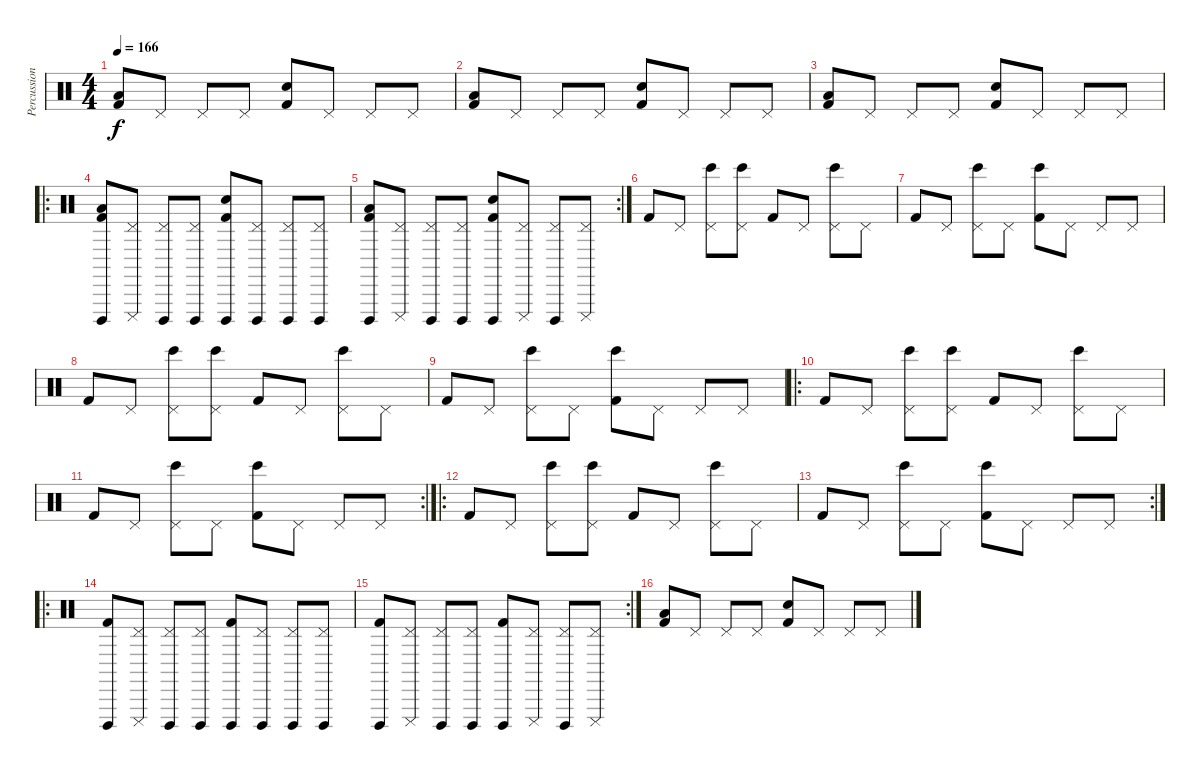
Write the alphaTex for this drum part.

\track ("Percussion" "Percussion") {instrument percussion}
\staff {score}
\articulation defaults
\ts (4 4)
\tempo 166
\clef neutral
\ks c
("Kick (hit) 2" "Low Tom (hit)").8{dy f} "Pedal Hi-Hat (hit)".8 "Pedal Hi-Hat (hit)".8 "Pedal Hi-Hat (hit)".8 ("Kick (hit) 2" "Electric Snare (hit)").8 "Pedal Hi-Hat (hit)".8 "Pedal Hi-Hat (hit)".8 "Pedal Hi-Hat (hit)".8 |
("Kick (hit) 2" "Low Tom (hit)").8 "Pedal Hi-Hat (hit)".8 "Pedal Hi-Hat (hit)".8 "Pedal Hi-Hat (hit)".8 ("Kick (hit) 2" "Electric Snare (hit)").8 "Pedal Hi-Hat (hit)".8 "Pedal Hi-Hat (hit)".8 "Pedal Hi-Hat (hit)".8 |
("Kick (hit) 2" "Low Tom (hit)").8 "Pedal Hi-Hat (hit)".8 "Pedal Hi-Hat (hit)".8 "Pedal Hi-Hat (hit)".8 ("Kick (hit) 2" "Electric Snare (hit)").8 "Pedal Hi-Hat (hit)".8 "Pedal Hi-Hat (hit)".8 "Pedal Hi-Hat (hit)".8 |
\ro
("Kick (hit) 2" "Cuica (open)" "Low Tom (hit)").8 ("Pedal Hi-Hat (hit)" "Cuica (mute)").8 ("Pedal Hi-Hat (hit)" "Cuica (open)").8 ("Pedal Hi-Hat (hit)" "Cuica (open)").8 ("Kick (hit) 2" "Cuica (open)" "Electric Snare (hit)").8 ("Pedal Hi-Hat (hit)" "Cuica (open)").8 ("Pedal Hi-Hat (hit)" "Cuica (open)").8 ("Pedal Hi-Hat (hit)" "Cuica (open)").8 |
\rc 2
("Kick (hit) 2" "Cuica (open)" "Low Tom (hit)").8 ("Pedal Hi-Hat (hit)" "Cuica (mute)").8 ("Pedal Hi-Hat (hit)" "Cuica (open)").8 ("Pedal Hi-Hat (hit)" "Cuica (open)").8 ("Kick (hit) 2" "Cuica (open)" "Electric Snare (hit)").8 ("Pedal Hi-Hat (hit)" "Cuica (mute)").8 ("Pedal Hi-Hat (hit)" "Cuica (open)").8 ("Pedal Hi-Hat (hit)" "Cuica (mute)").8 |
"Kick (hit) 2".8 "Pedal Hi-Hat (hit)".8 ("Pedal Hi-Hat (hit)" "Bongo High (hit)").8 ("Pedal Hi-Hat (hit)" "Bongo High (hit)").8 "Kick (hit) 2".8 "Pedal Hi-Hat (hit)".8 ("Pedal Hi-Hat (hit)" "Bongo High (hit)").8 "Pedal Hi-Hat (hit)".8 |
"Kick (hit) 2".8 "Pedal Hi-Hat (hit)".8 ("Pedal Hi-Hat (hit)" "Bongo High (hit)").8 "Pedal Hi-Hat (hit)".8 ("Kick (hit) 2" "Bongo High (hit)").8 "Pedal Hi-Hat (hit)".8 "Pedal Hi-Hat (hit)".8 "Pedal Hi-Hat (hit)".8 |
"Kick (hit) 2".8 "Pedal Hi-Hat (hit)".8 ("Pedal Hi-Hat (hit)" "Bongo High (hit)").8 ("Pedal Hi-Hat (hit)" "Bongo High (hit)").8 "Kick (hit) 2".8 "Pedal Hi-Hat (hit)".8 ("Pedal Hi-Hat (hit)" "Bongo High (hit)").8 "Pedal Hi-Hat (hit)".8 |
"Kick (hit) 2".8 "Pedal Hi-Hat (hit)".8 ("Pedal Hi-Hat (hit)" "Bongo High (hit)").8 "Pedal Hi-Hat (hit)".8 ("Kick (hit) 2" "Bongo High (hit)").8 "Pedal Hi-Hat (hit)".8 "Pedal Hi-Hat (hit)".8 "Pedal Hi-Hat (hit)".8 |
\ro "Kick (hit) 2".8 "Pedal Hi-Hat (hit)".8
("Pedal Hi-Hat (hit)" "Bongo High (hit)").8 ("Pedal Hi-Hat (hit)" "Bongo High (hit)").8 "Kick (hit) 2".8 "Pedal Hi-Hat (hit)".8 ("Pedal Hi-Hat (hit)" "Bongo High (hit)").8 "Pedal Hi-Hat (hit)".8 |
\rc 2 "Kick (hit) 2".8 "Pedal Hi-Hat (hit)".8
("Pedal Hi-Hat (hit)" "Bongo High (hit)").8 "Pedal Hi-Hat (hit)".8 ("Kick (hit) 2" "Bongo High (hit)").8 "Pedal Hi-Hat (hit)".8 "Pedal Hi-Hat (hit)".8 "Pedal Hi-Hat (hit)".8 |
\ro "Kick (hit) 2".8 "Pedal Hi-Hat (hit)".8
("Pedal Hi-Hat (hit)" "Bongo High (hit)").8 ("Pedal Hi-Hat (hit)" "Bongo High (hit)").8 "Kick (hit) 2".8 "Pedal Hi-Hat (hit)".8 ("Pedal Hi-Hat (hit)" "Bongo High (hit)").8 "Pedal Hi-Hat (hit)".8 |
\rc 2 "Kick (hit) 2".8 "Pedal Hi-Hat (hit)".8
("Pedal Hi-Hat (hit)" "Bongo High (hit)").8 "Pedal Hi-Hat (hit)".8 ("Kick (hit) 2" "Bongo High (hit)").8 "Pedal Hi-Hat (hit)".8 "Pedal Hi-Hat (hit)".8 "Pedal Hi-Hat (hit)".8 |
\ro
("Kick (hit) 2" "Cuica (open)").8 ("Pedal Hi-Hat (hit)" "Cuica (mute)").8 ("Pedal Hi-Hat (hit)" "Cuica (open)").8 ("Pedal Hi-Hat (hit)" "Cuica (open)").8 ("Kick (hit) 2" "Cuica (open)").8 ("Pedal Hi-Hat (hit)" "Cuica (open)").8 ("Pedal Hi-Hat (hit)" "Cuica (open)").8 ("Pedal Hi-Hat (hit)" "Cuica (open)").8 |
\rc 2
("Kick (hit) 2" "Cuica (open)").8 ("Pedal Hi-Hat (hit)" "Cuica (mute)").8 ("Pedal Hi-Hat (hit)" "Cuica (open)").8 ("Pedal Hi-Hat (hit)" "Cuica (open)").8 ("Kick (hit) 2" "Cuica (open)").8 ("Pedal Hi-Hat (hit)" "Cuica (mute)").8 ("Pedal Hi-Hat (hit)" "Cuica (open)").8 ("Pedal Hi-Hat (hit)" "Cuica (mute)").8 |
("Kick (hit) 2" "Low Tom (hit)").8 "Pedal Hi-Hat (hit)".8 "Pedal Hi-Hat (hit)".8 "Pedal Hi-Hat (hit)".8 ("Kick (hit) 2" "Electric Snare (hit)").8 "Pedal Hi-Hat (hit)".8 "Pedal Hi-Hat (hit)".8 "Pedal Hi-Hat (hit)".8
